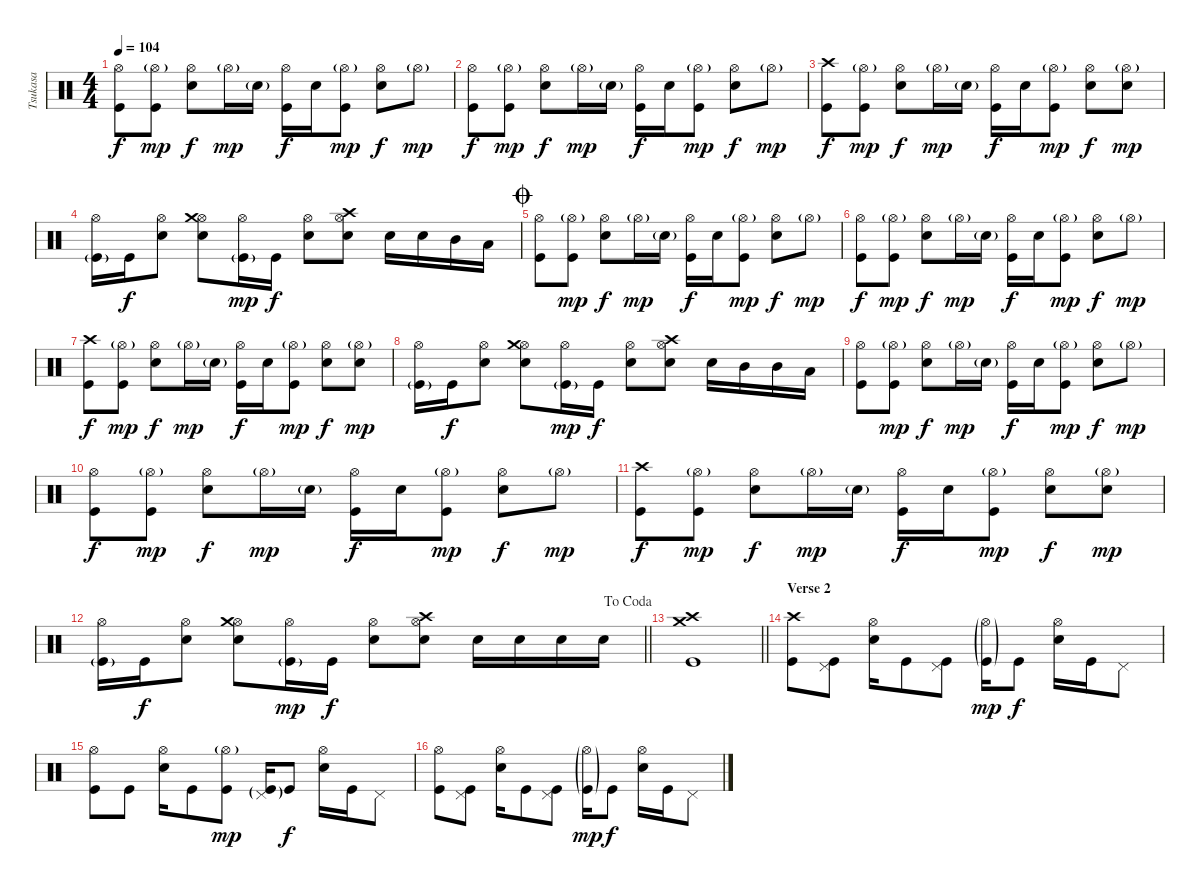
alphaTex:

\track ("Tsukasa" "Tsukasa") {instrument percussion}
\staff {score}
\articulation defaults
\ts (4 4)
\tempo 104
\clef neutral
\ks c
("Hi-Hat (open)" "Kick (hit)").8{dy f} ("Hi-Hat (open)"{g} "Kick (hit)").8{dy mp} ("Hi-Hat (open)" "Snare (hit) 2").8{dy f} "Hi-Hat (open)"{g}.16{dy mp} "Snare (hit) 2"{g}.16 ("Hi-Hat (open)" "Kick (hit)").16{dy f} "Snare (hit) 2".16 ("Hi-Hat (open)"{g} "Kick (hit)").8{dy mp} ("Hi-Hat (open)" "Snare (hit) 2").8{dy f} "Hi-Hat (open)"{g}.8{dy mp} |
("Hi-Hat (open)" "Kick (hit)").8{dy f} ("Hi-Hat (open)"{g} "Kick (hit)").8{dy mp} ("Hi-Hat (open)" "Snare (hit) 2").8{dy f} "Hi-Hat (open)"{g}.16{dy mp} "Snare (hit) 2"{g}.16 ("Hi-Hat (open)" "Kick (hit)").16{dy f} "Snare (hit) 2".16 ("Hi-Hat (open)"{g} "Kick (hit)").8{dy mp} ("Hi-Hat (open)" "Snare (hit) 2").8{dy f} "Hi-Hat (open)"{g}.8{dy mp} |
("Crash high (hit)" "Kick (hit)").8{dy f} ("Hi-Hat (open)"{g} "Kick (hit)").8{dy mp} ("Hi-Hat (open)" "Snare (hit) 2").8{dy f} "Hi-Hat (open)"{g}.16{dy mp} "Snare (hit) 2"{g}.16 ("Hi-Hat (open)" "Kick (hit)").16{dy f} "Snare (hit) 2".16 ("Hi-Hat (open)"{g} "Kick (hit)").8{dy mp} ("Hi-Hat (open)" "Snare (hit) 2").8{dy f} ("Hi-Hat (open)"{g} "Snare (hit) 2").8{dy mp} |
("Hi-Hat (open)" "Kick (hit)"{g}).16 "Kick (hit)".16{dy f} ("Hi-Hat (open)" "Snare (hit) 2").8 ("Hi-Hat (open)" "Crash medium (hit)" "Snare (hit) 2").8 ("Hi-Hat (open)" "Kick (hit)"{g}).16{dy mp} "Kick (hit)".16{dy f} ("Hi-Hat (open)" "Snare (hit) 2").8 ("Hi-Hat (open)" "Crash high (hit)" "Snare (hit) 2").8 "Snare (hit) 2".16 "Snare (hit) 2".16 "Mid Tom (hit)".16 "Low Tom (hit)".16 |
\jump coda
("Hi-Hat (open)" "Kick (hit)").8 ("Hi-Hat (open)"{g} "Kick (hit)").8{dy mp} ("Hi-Hat (open)" "Snare (hit) 2").8{dy f} "Hi-Hat (open)"{g}.16{dy mp} "Snare (hit) 2"{g}.16 ("Hi-Hat (open)" "Kick (hit)").16{dy f} "Snare (hit) 2".16 ("Hi-Hat (open)"{g} "Kick (hit)").8{dy mp} ("Hi-Hat (open)" "Snare (hit) 2").8{dy f} "Hi-Hat (open)"{g}.8{dy mp} |
("Hi-Hat (open)" "Kick (hit)").8{dy f} ("Hi-Hat (open)"{g} "Kick (hit)").8{dy mp} ("Hi-Hat (open)" "Snare (hit) 2").8{dy f} "Hi-Hat (open)"{g}.16{dy mp} "Snare (hit) 2"{g}.16 ("Hi-Hat (open)" "Kick (hit)").16{dy f} "Snare (hit) 2".16 ("Hi-Hat (open)"{g} "Kick (hit)").8{dy mp} ("Hi-Hat (open)" "Snare (hit) 2").8{dy f} "Hi-Hat (open)"{g}.8{dy mp} |
("Crash high (hit)" "Kick (hit)").8{dy f} ("Hi-Hat (open)"{g} "Kick (hit)").8{dy mp} ("Hi-Hat (open)" "Snare (hit) 2").8{dy f} "Hi-Hat (open)"{g}.16{dy mp} "Snare (hit) 2"{g}.16 ("Hi-Hat (open)" "Kick (hit)").16{dy f} "Snare (hit) 2".16 ("Hi-Hat (open)"{g} "Kick (hit)").8{dy mp} ("Hi-Hat (open)" "Snare (hit) 2").8{dy f} ("Hi-Hat (open)"{g} "Snare (hit) 2").8{dy mp} |
("Hi-Hat (open)" "Kick (hit)"{g}).16 "Kick (hit)".16{dy f} ("Hi-Hat (open)" "Snare (hit) 2").8 ("Hi-Hat (open)" "Crash medium (hit)" "Snare (hit) 2").8 ("Hi-Hat (open)" "Kick (hit)"{g}).16{dy mp} "Kick (hit)".16{dy f} ("Hi-Hat (open)" "Snare (hit) 2").8 ("Hi-Hat (open)" "Crash high (hit)" "Snare (hit) 2").8 "Snare (hit) 2".16 "Mid Tom (hit)".16 "Mid Tom (hit)".16 "Low Tom (hit)".16 |
("Hi-Hat (open)" "Kick (hit)").8 ("Hi-Hat (open)"{g} "Kick (hit)").8{dy mp} ("Hi-Hat (open)" "Snare (hit) 2").8{dy f} "Hi-Hat (open)"{g}.16{dy mp} "Snare (hit) 2"{g}.16 ("Hi-Hat (open)" "Kick (hit)").16{dy f} "Snare (hit) 2".16 ("Hi-Hat (open)"{g} "Kick (hit)").8{dy mp} ("Hi-Hat (open)" "Snare (hit) 2").8{dy f} "Hi-Hat (open)"{g}.8{dy mp} |
("Hi-Hat (open)" "Kick (hit)").8{dy f} ("Hi-Hat (open)"{g} "Kick (hit)").8{dy mp} ("Hi-Hat (open)" "Snare (hit) 2").8{dy f} "Hi-Hat (open)"{g}.16{dy mp} "Snare (hit) 2"{g}.16 ("Hi-Hat (open)" "Kick (hit)").16{dy f} "Snare (hit) 2".16 ("Hi-Hat (open)"{g} "Kick (hit)").8{dy mp} ("Hi-Hat (open)" "Snare (hit) 2").8{dy f} "Hi-Hat (open)"{g}.8{dy mp} |
("Crash high (hit)" "Kick (hit)").8{dy f} ("Hi-Hat (open)"{g} "Kick (hit)").8{dy mp} ("Hi-Hat (open)" "Snare (hit) 2").8{dy f} "Hi-Hat (open)"{g}.16{dy mp} "Snare (hit) 2"{g}.16 ("Hi-Hat (open)" "Kick (hit)").16{dy f} "Snare (hit) 2".16 ("Hi-Hat (open)"{g} "Kick (hit)").8{dy mp} ("Hi-Hat (open)" "Snare (hit) 2").8{dy f} ("Hi-Hat (open)"{g} "Snare (hit) 2").8{dy mp} |
\jump dacoda
\barLineRight lightlight
("Hi-Hat (open)" "Kick (hit)"{g}).16 "Kick (hit)".16{dy f} ("Hi-Hat (open)" "Snare (hit) 2").8 ("Hi-Hat (open)" "Crash medium (hit)" "Snare (hit) 2").8 ("Hi-Hat (open)" "Kick (hit)"{g}).16{dy mp} "Kick (hit)".16{dy f} ("Hi-Hat (open)" "Snare (hit) 2").8 ("Hi-Hat (open)" "Crash high (hit)" "Snare (hit) 2").8 "Snare (hit) 2".16 "Snare (hit) 2".16 "Snare (hit) 2".16 "Snare (hit) 2".16 |
\section ("" "")
\barLineRight lightlight
("Crash high (hit)" "Crash medium (hit)" "Kick (hit)").1 |
\section ("" "Verse 2")
("Crash high (hit)" "Kick (hit)").8 ("Pedal Hi-Hat (hit)" "Kick (hit)").8 ("Hi-Hat (open)" "Snare (hit) 2").16 "Kick (hit)".8 ("Pedal Hi-Hat (hit)" "Kick (hit)").8 ("Hi-Hat (open)"{g} "Kick (hit)"{g}).16{dy mp} "Kick (hit)".8{dy f} ("Hi-Hat (open)" "Snare (hit) 2").16 "Kick (hit)".16 "Pedal Hi-Hat (hit)".8 |
("Hi-Hat (open)" "Kick (hit)").8 "Kick (hit)".8 ("Hi-Hat (open)" "Snare (hit) 2").16 "Kick (hit)".8 ("Hi-Hat (open)"{g} "Kick (hit)").8{dy mp} ("Pedal Hi-Hat (hit)"{g} "Kick (hit)"{g}).16 "Kick (hit)".8{dy f} ("Hi-Hat (open)" "Snare (hit) 2").16 "Kick (hit)".16 "Pedal Hi-Hat (hit)".8 |
("Hi-Hat (open)" "Kick (hit)").8 ("Pedal Hi-Hat (hit)" "Kick (hit)").8 ("Hi-Hat (open)" "Snare (hit) 2").16 "Kick (hit)".8 ("Pedal Hi-Hat (hit)" "Kick (hit)").8 ("Hi-Hat (open)"{g} "Kick (hit)"{g}).16{dy mp} "Kick (hit)".8{dy f} ("Hi-Hat (open)" "Snare (hit) 2").16 "Kick (hit)".16 "Pedal Hi-Hat (hit)".8
